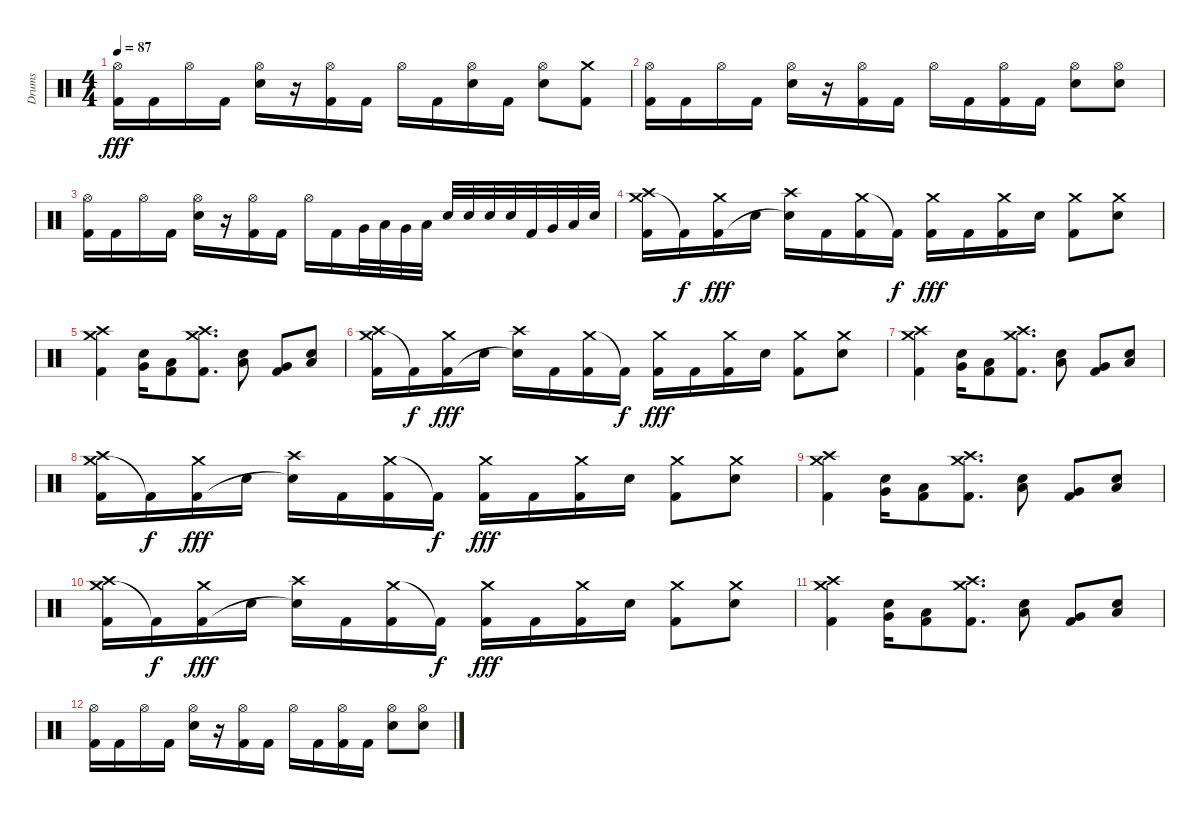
\track ("Drums" "Drums") {instrument percussion}
\staff {score}
\articulation defaults
\ts (4 4)
\tempo 87
\clef neutral
\ks c
("Hi-Hat (open)" "Kick (hit) 2").16{dy fff} "Kick (hit) 2".16 "Hi-Hat (open)".16 "Kick (hit) 2".16 ("Hi-Hat (open)" "Electric Snare (hit)").16 r.16 ("Hi-Hat (open)" "Kick (hit) 2").16 "Kick (hit) 2".16 "Hi-Hat (open)".16 "Kick (hit) 2".16 ("Hi-Hat (open)" "Electric Snare (hit)").16 "Kick (hit) 2".16 ("Hi-Hat (open)" "Electric Snare (hit)").8 ("Crash medium (hit)" "Kick (hit) 2").8 |
("Hi-Hat (open)" "Kick (hit) 2").16 "Kick (hit) 2".16 "Hi-Hat (open)".16 "Kick (hit) 2".16 ("Hi-Hat (open)" "Electric Snare (hit)").16 r.16 ("Hi-Hat (open)" "Kick (hit) 2").16 "Kick (hit) 2".16 "Hi-Hat (open)".16 "Kick (hit) 2".16 ("Hi-Hat (open)" "Kick (hit) 2").16 "Kick (hit) 2".16 ("Hi-Hat (open)" "Electric Snare (hit)").8 ("Hi-Hat (open)" "Electric Snare (hit)").8 |
("Hi-Hat (open)" "Kick (hit) 2").16 "Kick (hit) 2".16 "Hi-Hat (open)".16 "Kick (hit) 2".16 ("Hi-Hat (open)" "Electric Snare (hit)").16 r.16 ("Hi-Hat (open)" "Kick (hit) 2").16 "Kick (hit) 2".16 "Hi-Hat (open)".16 "Kick (hit) 2".16 "Very Low Tom (hit)".32 "Low Floor Tom (hit)".32 "Very Low Tom (hit)".32 "Low Floor Tom (hit)".32 "Electric Snare (hit)".32 "Electric Snare (hit)".32 "Electric Snare (hit)".32 "Electric Snare (hit)".32 "Kick (hit) 2".32 "Very Low Tom (hit)".32 "Low Floor Tom (hit)".32 "Electric Snare (hit)".32 |
("Crash medium (hit)" "Crash high (hit)" "Kick (hit) 2").16 "Kick (hit) 2"{t}.16{dy f} ("Crash medium (hit)" "Kick (hit) 2").16{dy fff} "Electric Snare (hit)".16 ("Crash high (hit)" "Electric Snare (hit)"{t}).16 "Kick (hit) 2".16 ("Crash medium (hit)" "Kick (hit) 2").16 "Kick (hit) 2"{t}.16{dy f} ("Crash medium (hit)" "Kick (hit) 2").16{dy fff} "Kick (hit) 2".16 ("Crash medium (hit)" "Kick (hit) 2").16 "Electric Snare (hit)".16 ("Crash medium (hit)" "Kick (hit) 2").8 ("Crash medium (hit)" "Electric Snare (hit)").8 |
("Crash medium (hit)" "Crash high (hit)" "Kick (hit) 2").4 ("Very Low Tom (hit)" "Electric Snare (hit)").16 ("Low Floor Tom (hit)" "Kick (hit) 2").8 ("Crash medium (hit)" "Crash high (hit)" "Kick (hit) 2").8{d} ("Low Floor Tom (hit)" "Electric Snare (hit)").8 ("Very Low Tom (hit)" "Kick (hit) 2").8 ("Low Floor Tom (hit)" "Electric Snare (hit)").8 |
("Crash medium (hit)" "Crash high (hit)" "Kick (hit) 2").16 "Kick (hit) 2"{t}.16{dy f} ("Crash medium (hit)" "Kick (hit) 2").16{dy fff} "Electric Snare (hit)".16 ("Crash high (hit)" "Electric Snare (hit)"{t}).16 "Kick (hit) 2".16 ("Crash medium (hit)" "Kick (hit) 2").16 "Kick (hit) 2"{t}.16{dy f} ("Crash medium (hit)" "Kick (hit) 2").16{dy fff} "Kick (hit) 2".16 ("Crash medium (hit)" "Kick (hit) 2").16 "Electric Snare (hit)".16 ("Crash medium (hit)" "Kick (hit) 2").8 ("Crash medium (hit)" "Electric Snare (hit)").8 |
("Crash medium (hit)" "Crash high (hit)" "Kick (hit) 2").4 ("Very Low Tom (hit)" "Electric Snare (hit)").16 ("Low Floor Tom (hit)" "Kick (hit) 2").8 ("Crash medium (hit)" "Crash high (hit)" "Kick (hit) 2").8{d} ("Low Floor Tom (hit)" "Electric Snare (hit)").8 ("Very Low Tom (hit)" "Kick (hit) 2").8 ("Low Floor Tom (hit)" "Electric Snare (hit)").8 |
("Crash medium (hit)" "Crash high (hit)" "Kick (hit) 2").16 "Kick (hit) 2"{t}.16{dy f} ("Crash medium (hit)" "Kick (hit) 2").16{dy fff} "Electric Snare (hit)".16 ("Crash high (hit)" "Electric Snare (hit)"{t}).16 "Kick (hit) 2".16 ("Crash medium (hit)" "Kick (hit) 2").16 "Kick (hit) 2"{t}.16{dy f} ("Crash medium (hit)" "Kick (hit) 2").16{dy fff} "Kick (hit) 2".16 ("Crash medium (hit)" "Kick (hit) 2").16 "Electric Snare (hit)".16 ("Crash medium (hit)" "Kick (hit) 2").8 ("Crash medium (hit)" "Electric Snare (hit)").8 |
("Crash medium (hit)" "Crash high (hit)" "Kick (hit) 2").4 ("Very Low Tom (hit)" "Electric Snare (hit)").16 ("Low Floor Tom (hit)" "Kick (hit) 2").8 ("Crash medium (hit)" "Crash high (hit)" "Kick (hit) 2").8{d} ("Low Floor Tom (hit)" "Electric Snare (hit)").8 ("Very Low Tom (hit)" "Kick (hit) 2").8 ("Low Floor Tom (hit)" "Electric Snare (hit)").8 |
("Crash medium (hit)" "Crash high (hit)" "Kick (hit) 2").16 "Kick (hit) 2"{t}.16{dy f} ("Crash medium (hit)" "Kick (hit) 2").16{dy fff} "Electric Snare (hit)".16 ("Crash high (hit)" "Electric Snare (hit)"{t}).16 "Kick (hit) 2".16 ("Crash medium (hit)" "Kick (hit) 2").16 "Kick (hit) 2"{t}.16{dy f} ("Crash medium (hit)" "Kick (hit) 2").16{dy fff} "Kick (hit) 2".16 ("Crash medium (hit)" "Kick (hit) 2").16 "Electric Snare (hit)".16 ("Crash medium (hit)" "Kick (hit) 2").8 ("Crash medium (hit)" "Electric Snare (hit)").8 |
("Crash medium (hit)" "Crash high (hit)" "Kick (hit) 2").4 ("Very Low Tom (hit)" "Electric Snare (hit)").16 ("Low Floor Tom (hit)" "Kick (hit) 2").8 ("Crash medium (hit)" "Crash high (hit)" "Kick (hit) 2").8{d} ("Low Floor Tom (hit)" "Electric Snare (hit)").8 ("Very Low Tom (hit)" "Kick (hit) 2").8 ("Low Floor Tom (hit)" "Electric Snare (hit)").8 |
("Hi-Hat (open)" "Kick (hit) 2").16 "Kick (hit) 2".16 "Hi-Hat (open)".16 "Kick (hit) 2".16 ("Hi-Hat (open)" "Electric Snare (hit)").16 r.16 ("Hi-Hat (open)" "Kick (hit) 2").16 "Kick (hit) 2".16 "Hi-Hat (open)".16 "Kick (hit) 2".16 ("Hi-Hat (open)" "Kick (hit) 2").16 "Kick (hit) 2".16 ("Hi-Hat (open)" "Electric Snare (hit)").8 ("Hi-Hat (open)" "Electric Snare (hit)").8
